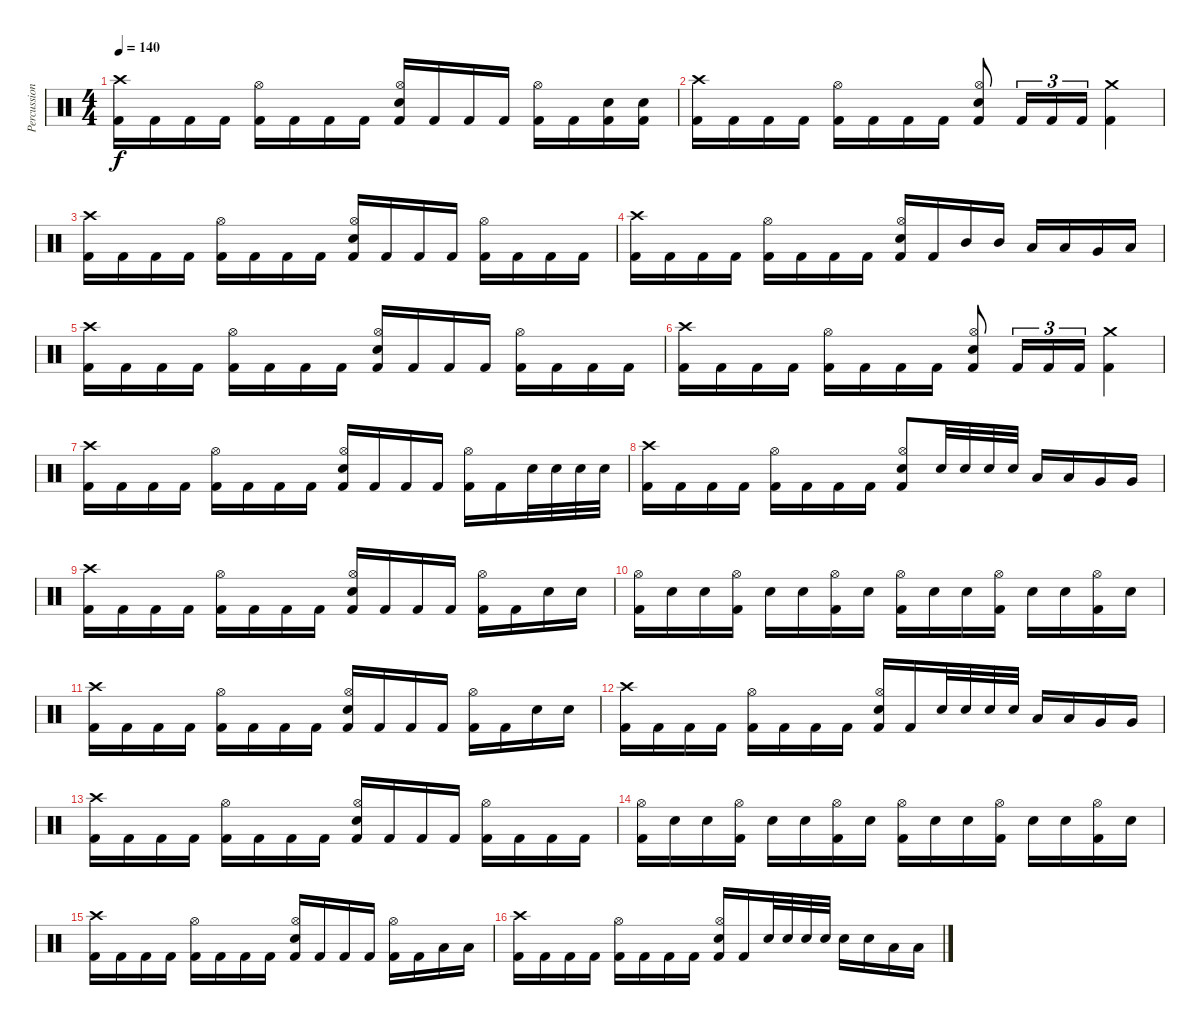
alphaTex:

\track ("Percussion" "Percussion") {instrument percussion}
\staff {score}
\articulation defaults
\ts (4 4)
\tempo 140
\clef neutral
\ks c
("Crash high (hit)" "Kick (hit) 2").16{dy f} "Kick (hit) 2".16 "Kick (hit) 2".16 "Kick (hit) 2".16 ("Hi-Hat (open)" "Kick (hit) 2").16 "Kick (hit) 2".16 "Kick (hit) 2".16 "Kick (hit) 2".16 ("Hi-Hat (open)" "Electric Snare (hit)" "Kick (hit) 2").16 "Kick (hit) 2".16 "Kick (hit) 2".16 "Kick (hit) 2".16 ("Hi-Hat (open)" "Kick (hit) 2").16 "Kick (hit) 2".16 ("Electric Snare (hit)" "Kick (hit) 2").16 ("Electric Snare (hit)" "Kick (hit) 2").16 |
("Crash high (hit)" "Kick (hit) 2").16 "Kick (hit) 2".16 "Kick (hit) 2".16 "Kick (hit) 2".16 ("Hi-Hat (open)" "Kick (hit) 2").16 "Kick (hit) 2".16 "Kick (hit) 2".16 "Kick (hit) 2".16 ("Hi-Hat (open)" "Electric Snare (hit)" "Kick (hit) 2").8 "Kick (hit) 2".16{tu (3 2)} "Kick (hit) 2".16{tu (3 2)} "Kick (hit) 2".16{tu (3 2)} ("Crash medium (hit)" "Kick (hit) 2").4 |
("Crash high (hit)" "Kick (hit) 2").16 "Kick (hit) 2".16 "Kick (hit) 2".16 "Kick (hit) 2".16 ("Hi-Hat (open)" "Kick (hit) 2").16 "Kick (hit) 2".16 "Kick (hit) 2".16 "Kick (hit) 2".16 ("Hi-Hat (open)" "Electric Snare (hit)" "Kick (hit) 2").16 "Kick (hit) 2".16 "Kick (hit) 2".16 "Kick (hit) 2".16 ("Hi-Hat (open)" "Kick (hit) 2").16 "Kick (hit) 2".16 "Kick (hit) 2".16 "Kick (hit) 2".16 |
("Crash high (hit)" "Kick (hit) 2").16 "Kick (hit) 2".16 "Kick (hit) 2".16 "Kick (hit) 2".16 ("Hi-Hat (open)" "Kick (hit) 2").16 "Kick (hit) 2".16 "Kick (hit) 2".16 "Kick (hit) 2".16 ("Hi-Hat (open)" "Electric Snare (hit)" "Kick (hit) 2").16 "Kick (hit) 2".16 "Mid Tom (hit)".16 "Mid Tom (hit)".16 "Low Tom (hit)".16 "Low Tom (hit)".16 "Very Low Tom (hit)".16 "Low Floor Tom (hit)".16 |
("Crash high (hit)" "Kick (hit) 2").16 "Kick (hit) 2".16 "Kick (hit) 2".16 "Kick (hit) 2".16 ("Hi-Hat (open)" "Kick (hit) 2").16 "Kick (hit) 2".16 "Kick (hit) 2".16 "Kick (hit) 2".16 ("Hi-Hat (open)" "Electric Snare (hit)" "Kick (hit) 2").16 "Kick (hit) 2".16 "Kick (hit) 2".16 "Kick (hit) 2".16 ("Hi-Hat (open)" "Kick (hit) 2").16 "Kick (hit) 2".16 "Kick (hit) 2".16 "Kick (hit) 2".16 |
("Crash high (hit)" "Kick (hit) 2").16 "Kick (hit) 2".16 "Kick (hit) 2".16 "Kick (hit) 2".16 ("Hi-Hat (open)" "Kick (hit) 2").16 "Kick (hit) 2".16 "Kick (hit) 2".16 "Kick (hit) 2".16 ("Hi-Hat (open)" "Electric Snare (hit)" "Kick (hit) 2").8 "Kick (hit) 2".16{tu (3 2)} "Kick (hit) 2".16{tu (3 2)} "Kick (hit) 2".16{tu (3 2)} ("Crash medium (hit)" "Kick (hit) 2").4 |
("Crash high (hit)" "Kick (hit) 2").16 "Kick (hit) 2".16 "Kick (hit) 2".16 "Kick (hit) 2".16 ("Hi-Hat (open)" "Kick (hit) 2").16 "Kick (hit) 2".16 "Kick (hit) 2".16 "Kick (hit) 2".16 ("Hi-Hat (open)" "Electric Snare (hit)" "Kick (hit) 2").16 "Kick (hit) 2".16 "Kick (hit) 2".16 "Kick (hit) 2".16 ("Hi-Hat (open)" "Kick (hit) 2").16 "Kick (hit) 2".16 "Electric Snare (hit)".32 "Electric Snare (hit)".32 "Electric Snare (hit)".32 "Electric Snare (hit)".32 |
("Crash high (hit)" "Kick (hit) 2").16 "Kick (hit) 2".16 "Kick (hit) 2".16 "Kick (hit) 2".16 ("Hi-Hat (open)" "Kick (hit) 2").16 "Kick (hit) 2".16 "Kick (hit) 2".16 "Kick (hit) 2".16 ("Hi-Hat (open)" "Electric Snare (hit)" "Kick (hit) 2").8 "Electric Snare (hit)".32 "Electric Snare (hit)".32 "Electric Snare (hit)".32 "Electric Snare (hit)".32 "Low Tom (hit)".16 "Low Tom (hit)".16 "Very Low Tom (hit)".16 "Very Low Tom (hit)".16 |
("Crash high (hit)" "Kick (hit) 2").16 "Kick (hit) 2".16 "Kick (hit) 2".16 "Kick (hit) 2".16 ("Hi-Hat (open)" "Kick (hit) 2").16 "Kick (hit) 2".16 "Kick (hit) 2".16 "Kick (hit) 2".16 ("Hi-Hat (open)" "Electric Snare (hit)" "Kick (hit) 2").16 "Kick (hit) 2".16 "Kick (hit) 2".16 "Kick (hit) 2".16 ("Hi-Hat (open)" "Kick (hit) 2").16 "Kick (hit) 2".16 "Electric Snare (hit)".16 "Electric Snare (hit)".16 |
("Hi-Hat (open)" "Kick (hit) 2").16 "Electric Snare (hit)".16 "Electric Snare (hit)".16 ("Hi-Hat (open)" "Kick (hit) 2").16 "Electric Snare (hit)".16 "Electric Snare (hit)".16 ("Hi-Hat (open)" "Kick (hit) 2").16 "Electric Snare (hit)".16 ("Hi-Hat (open)" "Kick (hit) 2").16 "Electric Snare (hit)".16 "Electric Snare (hit)".16 ("Hi-Hat (open)" "Kick (hit) 2").16 "Electric Snare (hit)".16 "Electric Snare (hit)".16 ("Hi-Hat (open)" "Kick (hit) 2").16 "Electric Snare (hit)".16 |
("Crash high (hit)" "Kick (hit) 2").16 "Kick (hit) 2".16 "Kick (hit) 2".16 "Kick (hit) 2".16 ("Hi-Hat (open)" "Kick (hit) 2").16 "Kick (hit) 2".16 "Kick (hit) 2".16 "Kick (hit) 2".16 ("Hi-Hat (open)" "Electric Snare (hit)" "Kick (hit) 2").16 "Kick (hit) 2".16 "Kick (hit) 2".16 "Kick (hit) 2".16 ("Hi-Hat (open)" "Kick (hit) 2").16 "Kick (hit) 2".16 "Electric Snare (hit)".16 "Electric Snare (hit)".16 |
("Crash high (hit)" "Kick (hit) 2").16 "Kick (hit) 2".16 "Kick (hit) 2".16 "Kick (hit) 2".16 ("Hi-Hat (open)" "Kick (hit) 2").16 "Kick (hit) 2".16 "Kick (hit) 2".16 "Kick (hit) 2".16 ("Hi-Hat (open)" "Electric Snare (hit)" "Kick (hit) 2").16 "Kick (hit) 2".16 "Electric Snare (hit)".32 "Electric Snare (hit)".32 "Electric Snare (hit)".32 "Electric Snare (hit)".32 "Low Tom (hit)".16 "Low Tom (hit)".16 "Very Low Tom (hit)".16 "Very Low Tom (hit)".16 |
("Crash high (hit)" "Kick (hit) 2").16 "Kick (hit) 2".16 "Kick (hit) 2".16 "Kick (hit) 2".16 ("Hi-Hat (open)" "Kick (hit) 2").16 "Kick (hit) 2".16 "Kick (hit) 2".16 "Kick (hit) 2".16 ("Hi-Hat (open)" "Electric Snare (hit)" "Kick (hit) 2").16 "Kick (hit) 2".16 "Kick (hit) 2".16 "Kick (hit) 2".16 ("Hi-Hat (open)" "Kick (hit) 2").16 "Kick (hit) 2".16 "Kick (hit) 2".16 "Kick (hit) 2".16 |
("Hi-Hat (open)" "Kick (hit) 2").16 "Electric Snare (hit)".16 "Electric Snare (hit)".16 ("Hi-Hat (open)" "Kick (hit) 2").16 "Electric Snare (hit)".16 "Electric Snare (hit)".16 ("Hi-Hat (open)" "Kick (hit) 2").16 "Electric Snare (hit)".16 ("Hi-Hat (open)" "Kick (hit) 2").16 "Electric Snare (hit)".16 "Electric Snare (hit)".16 ("Hi-Hat (open)" "Kick (hit) 2").16 "Electric Snare (hit)".16 "Electric Snare (hit)".16 ("Hi-Hat (open)" "Kick (hit) 2").16 "Electric Snare (hit)".16 |
("Crash high (hit)" "Kick (hit) 2").16 "Kick (hit) 2".16 "Kick (hit) 2".16 "Kick (hit) 2".16 ("Hi-Hat (open)" "Kick (hit) 2").16 "Kick (hit) 2".16 "Kick (hit) 2".16 "Kick (hit) 2".16 ("Hi-Hat (open)" "Electric Snare (hit)" "Kick (hit) 2").16 "Kick (hit) 2".16 "Kick (hit) 2".16 "Kick (hit) 2".16 ("Hi-Hat (open)" "Kick (hit) 2").16 "Kick (hit) 2".16 "Low Tom (hit)".16 "Low Tom (hit)".16 |
("Crash high (hit)" "Kick (hit) 2").16 "Kick (hit) 2".16 "Kick (hit) 2".16 "Kick (hit) 2".16 ("Hi-Hat (open)" "Kick (hit) 2").16 "Kick (hit) 2".16 "Kick (hit) 2".16 "Kick (hit) 2".16 ("Hi-Hat (open)" "Electric Snare (hit)" "Kick (hit) 2").16 "Kick (hit) 2".16 "Electric Snare (hit)".32 "Electric Snare (hit)".32 "Electric Snare (hit)".32 "Electric Snare (hit)".32 "Electric Snare (hit)".16 "Electric Snare (hit)".16 "Low Tom (hit)".16 "Low Tom (hit)".16
